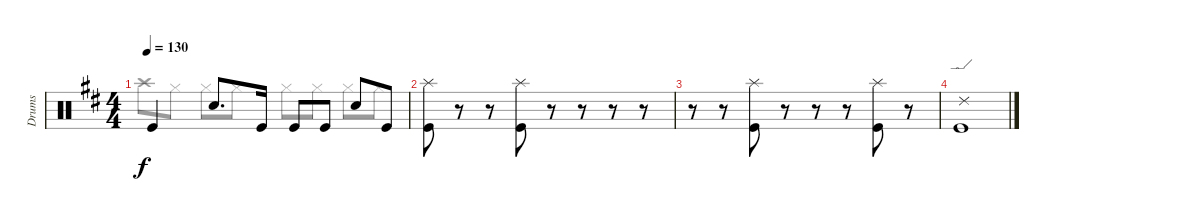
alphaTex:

\track ("Drums" "Drums") {instrument percussion}
\staff {score}
\articulation defaults
\voice
\ts (4 4)
\tempo 130
\clef neutral
\ks d "Kick (hit)".4{dy f} "Snare (hit) 2".8{d} "Kick (hit)".16 "Kick (hit)".8 "Kick (hit)".8 "Snare (hit) 2".8 "Kick (hit)".8
|
("Splash (hit)" "Kick (hit)").8 r.8 r.8 ("Splash (hit)" "Kick (hit)").8 r.8 r.8 r.8 r.8 |
r.8 r.8 ("Splash (hit)" "Kick (hit)").8 r.8 r.8 r.8 ("Splash (hit)" "Kick (hit)").8 r.8 |
("Ride (edge) 2" "Kick (hit)").1 |
|
\voice
\clef neutral
\ottava regular
\simile none
\ks d "Crash high (hit)".8{dy f} "Hi-Hat (closed)".8 "Hi-Hat (closed)".8 "Hi-Hat (closed)".8 "Hi-Hat (closed)".8 "Hi-Hat (closed)".8 "Hi-Hat (closed)".8 "Hi-Hat (closed)".8
|
|
|
|
|
